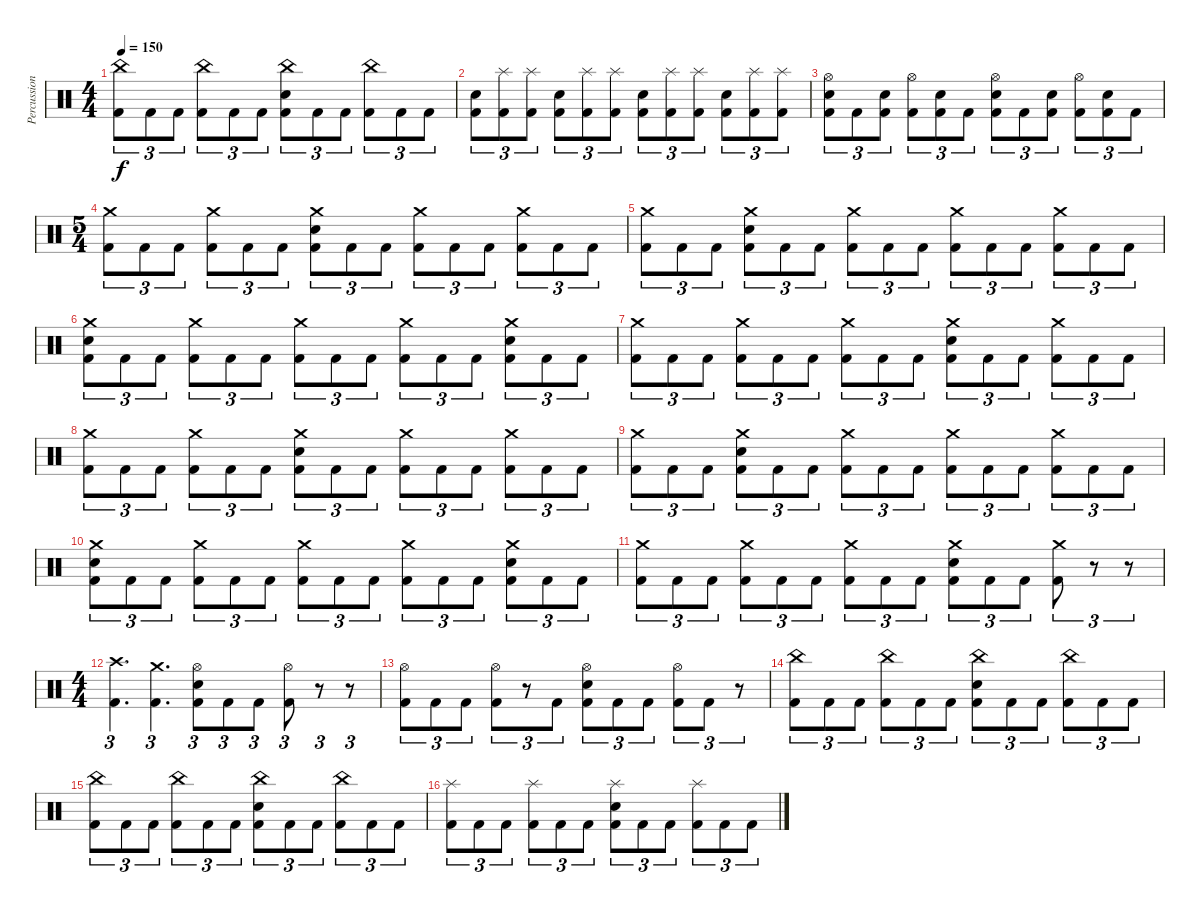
\track ("Percussion" "Percussion") {instrument percussion}
\staff {score}
\articulation defaults
\ts (4 4)
\tempo 150
\clef neutral
\ks c
("China (hit)" "Kick (hit) 2").8{tu (3 2) dy f} "Kick (hit) 2".8{tu (3 2)} "Kick (hit) 2".8{tu (3 2)} ("China (hit)" "Kick (hit) 2").8{tu (3 2)} "Kick (hit) 2".8{tu (3 2)} "Kick (hit) 2".8{tu (3 2)} ("China (hit)" "Snare (hit) 2" "Kick (hit) 2").8{tu (3 2)} "Kick (hit) 2".8{tu (3 2)} "Kick (hit) 2".8{tu (3 2)} ("China (hit)" "Kick (hit) 2").8{tu (3 2)} "Kick (hit) 2".8{tu (3 2)} "Kick (hit) 2".8{tu (3 2)} |
("Snare (hit) 2" "Kick (hit) 2").8{tu (3 2)} ("Splash (hit)" "Kick (hit) 2").8{tu (3 2)} ("Splash (hit)" "Kick (hit) 2").8{tu (3 2)} ("Snare (hit) 2" "Kick (hit) 2").8{tu (3 2)} ("Splash (hit)" "Kick (hit) 2").8{tu (3 2)} ("Splash (hit)" "Kick (hit) 2").8{tu (3 2)} ("Snare (hit) 2" "Kick (hit) 2").8{tu (3 2)} ("Splash (hit)" "Kick (hit) 2").8{tu (3 2)} ("Splash (hit)" "Kick (hit) 2").8{tu (3 2)} ("Snare (hit) 2" "Kick (hit) 2").8{tu (3 2)} ("Splash (hit)" "Kick (hit) 2").8{tu (3 2)} ("Splash (hit)" "Kick (hit) 2").8{tu (3 2)} |
("Hi-Hat (open)" "Snare (hit) 2" "Kick (hit) 2").8{tu (3 2)} "Kick (hit) 2".8{tu (3 2)} ("Snare (hit) 2" "Kick (hit) 2").8{tu (3 2)} ("Hi-Hat (open)" "Kick (hit) 2").8{tu (3 2)} ("Snare (hit) 2" "Kick (hit) 2").8{tu (3 2)} "Kick (hit) 2".8{tu (3 2)} ("Hi-Hat (open)" "Snare (hit) 2" "Kick (hit) 2").8{tu (3 2)} "Kick (hit) 2".8{tu (3 2)} ("Snare (hit) 2" "Kick (hit) 2").8{tu (3 2)} ("Hi-Hat (open)" "Kick (hit) 2").8{tu (3 2)} ("Snare (hit) 2" "Kick (hit) 2").8{tu (3 2)} "Kick (hit) 2".8{tu (3 2)} |
\ts (5 4)
("Crash medium (hit)" "Kick (hit) 2").8{tu (3 2)} "Kick (hit) 2".8{tu (3 2)} "Kick (hit) 2".8{tu (3 2)} ("Crash medium (hit)" "Kick (hit) 2").8{tu (3 2)} "Kick (hit) 2".8{tu (3 2)} "Kick (hit) 2".8{tu (3 2)} ("Crash medium (hit)" "Snare (hit) 2" "Kick (hit) 2").8{tu (3 2)} "Kick (hit) 2".8{tu (3 2)} "Kick (hit) 2".8{tu (3 2)} ("Crash medium (hit)" "Kick (hit) 2").8{tu (3 2)} "Kick (hit) 2".8{tu (3 2)} "Kick (hit) 2".8{tu (3 2)} ("Crash medium (hit)" "Kick (hit) 2").8{tu (3 2)} "Kick (hit) 2".8{tu (3 2)} "Kick (hit) 2".8{tu (3 2)} |
("Crash medium (hit)" "Kick (hit) 2").8{tu (3 2)} "Kick (hit) 2".8{tu (3 2)} "Kick (hit) 2".8{tu (3 2)} ("Crash medium (hit)" "Snare (hit) 2" "Kick (hit) 2").8{tu (3 2)} "Kick (hit) 2".8{tu (3 2)} "Kick (hit) 2".8{tu (3 2)} ("Crash medium (hit)" "Kick (hit) 2").8{tu (3 2)} "Kick (hit) 2".8{tu (3 2)} "Kick (hit) 2".8{tu (3 2)} ("Crash medium (hit)" "Kick (hit) 2").8{tu (3 2)} "Kick (hit) 2".8{tu (3 2)} "Kick (hit) 2".8{tu (3 2)} ("Crash medium (hit)" "Kick (hit) 2").8{tu (3 2)} "Kick (hit) 2".8{tu (3 2)} "Kick (hit) 2".8{tu (3 2)} |
("Crash medium (hit)" "Snare (hit) 2" "Kick (hit) 2").8{tu (3 2)} "Kick (hit) 2".8{tu (3 2)} "Kick (hit) 2".8{tu (3 2)} ("Crash medium (hit)" "Kick (hit) 2").8{tu (3 2)} "Kick (hit) 2".8{tu (3 2)} "Kick (hit) 2".8{tu (3 2)} ("Crash medium (hit)" "Kick (hit) 2").8{tu (3 2)} "Kick (hit) 2".8{tu (3 2)} "Kick (hit) 2".8{tu (3 2)} ("Crash medium (hit)" "Kick (hit) 2").8{tu (3 2)} "Kick (hit) 2".8{tu (3 2)} "Kick (hit) 2".8{tu (3 2)} ("Crash medium (hit)" "Snare (hit) 2" "Kick (hit) 2").8{tu (3 2)} "Kick (hit) 2".8{tu (3 2)} "Kick (hit) 2".8{tu (3 2)} |
("Crash medium (hit)" "Kick (hit) 2").8{tu (3 2)} "Kick (hit) 2".8{tu (3 2)} "Kick (hit) 2".8{tu (3 2)} ("Crash medium (hit)" "Kick (hit) 2").8{tu (3 2)} "Kick (hit) 2".8{tu (3 2)} "Kick (hit) 2".8{tu (3 2)} ("Crash medium (hit)" "Kick (hit) 2").8{tu (3 2)} "Kick (hit) 2".8{tu (3 2)} "Kick (hit) 2".8{tu (3 2)} ("Crash medium (hit)" "Snare (hit) 2" "Kick (hit) 2").8{tu (3 2)} "Kick (hit) 2".8{tu (3 2)} "Kick (hit) 2".8{tu (3 2)} ("Crash medium (hit)" "Kick (hit) 2").8{tu (3 2)} "Kick (hit) 2".8{tu (3 2)} "Kick (hit) 2".8{tu (3 2)} |
("Crash medium (hit)" "Kick (hit) 2").8{tu (3 2)} "Kick (hit) 2".8{tu (3 2)} "Kick (hit) 2".8{tu (3 2)} ("Crash medium (hit)" "Kick (hit) 2").8{tu (3 2)} "Kick (hit) 2".8{tu (3 2)} "Kick (hit) 2".8{tu (3 2)} ("Crash medium (hit)" "Snare (hit) 2" "Kick (hit) 2").8{tu (3 2)} "Kick (hit) 2".8{tu (3 2)} "Kick (hit) 2".8{tu (3 2)} ("Crash medium (hit)" "Kick (hit) 2").8{tu (3 2)} "Kick (hit) 2".8{tu (3 2)} "Kick (hit) 2".8{tu (3 2)} ("Crash medium (hit)" "Kick (hit) 2").8{tu (3 2)} "Kick (hit) 2".8{tu (3 2)} "Kick (hit) 2".8{tu (3 2)} |
("Crash medium (hit)" "Kick (hit) 2").8{tu (3 2)} "Kick (hit) 2".8{tu (3 2)} "Kick (hit) 2".8{tu (3 2)} ("Crash medium (hit)" "Snare (hit) 2" "Kick (hit) 2").8{tu (3 2)} "Kick (hit) 2".8{tu (3 2)} "Kick (hit) 2".8{tu (3 2)} ("Crash medium (hit)" "Kick (hit) 2").8{tu (3 2)} "Kick (hit) 2".8{tu (3 2)} "Kick (hit) 2".8{tu (3 2)} ("Crash medium (hit)" "Kick (hit) 2").8{tu (3 2)} "Kick (hit) 2".8{tu (3 2)} "Kick (hit) 2".8{tu (3 2)} ("Crash medium (hit)" "Kick (hit) 2").8{tu (3 2)} "Kick (hit) 2".8{tu (3 2)} "Kick (hit) 2".8{tu (3 2)} |
("Crash medium (hit)" "Snare (hit) 2" "Kick (hit) 2").8{tu (3 2)} "Kick (hit) 2".8{tu (3 2)} "Kick (hit) 2".8{tu (3 2)} ("Crash medium (hit)" "Kick (hit) 2").8{tu (3 2)} "Kick (hit) 2".8{tu (3 2)} "Kick (hit) 2".8{tu (3 2)} ("Crash medium (hit)" "Kick (hit) 2").8{tu (3 2)} "Kick (hit) 2".8{tu (3 2)} "Kick (hit) 2".8{tu (3 2)} ("Crash medium (hit)" "Kick (hit) 2").8{tu (3 2)} "Kick (hit) 2".8{tu (3 2)} "Kick (hit) 2".8{tu (3 2)} ("Crash medium (hit)" "Snare (hit) 2" "Kick (hit) 2").8{tu (3 2)} "Kick (hit) 2".8{tu (3 2)} "Kick (hit) 2".8{tu (3 2)} |
("Crash medium (hit)" "Kick (hit) 2").8{tu (3 2)} "Kick (hit) 2".8{tu (3 2)} "Kick (hit) 2".8{tu (3 2)} ("Crash medium (hit)" "Kick (hit) 2").8{tu (3 2)} "Kick (hit) 2".8{tu (3 2)} "Kick (hit) 2".8{tu (3 2)} ("Crash medium (hit)" "Kick (hit) 2").8{tu (3 2)} "Kick (hit) 2".8{tu (3 2)} "Kick (hit) 2".8{tu (3 2)} ("Crash medium (hit)" "Snare (hit) 2" "Kick (hit) 2").8{tu (3 2)} "Kick (hit) 2".8{tu (3 2)} "Kick (hit) 2".8{tu (3 2)} ("Crash medium (hit)" "Kick (hit) 2").8{tu (3 2)} r.8{tu (3 2)} r.8{tu (3 2)} |
\ts (4 4)
("Crash high (hit)" "Kick (hit) 2").4{d tu (3 2)} ("Crash medium (hit)" "Kick (hit) 2").4{d tu (3 2)} ("Hi-Hat (open)" "Snare (hit) 2" "Kick (hit) 2").8{tu (3 2)} "Kick (hit) 2".8{tu (3 2)} "Kick (hit) 2".8{tu (3 2)} ("Hi-Hat (open)" "Kick (hit) 2").8{tu (3 2)} r.8{tu (3 2)} r.8{tu (3 2)} |
("Hi-Hat (open)" "Kick (hit) 2").8{tu (3 2)} "Kick (hit) 2".8{tu (3 2)} "Kick (hit) 2".8{tu (3 2)} ("Hi-Hat (open)" "Kick (hit) 2").8{tu (3 2)} r.8{tu (3 2)} "Kick (hit) 2".8{tu (3 2)} ("Hi-Hat (open)" "Snare (hit) 2" "Kick (hit) 2").8{tu (3 2)} "Kick (hit) 2".8{tu (3 2)} "Kick (hit) 2".8{tu (3 2)} ("Hi-Hat (open)" "Kick (hit) 2").8{tu (3 2)} "Kick (hit) 2".8{tu (3 2)} r.8{tu (3 2)} |
("China (hit)" "Kick (hit) 2").8{tu (3 2)} "Kick (hit) 2".8{tu (3 2)} "Kick (hit) 2".8{tu (3 2)} ("China (hit)" "Kick (hit) 2").8{tu (3 2)} "Kick (hit) 2".8{tu (3 2)} "Kick (hit) 2".8{tu (3 2)} ("China (hit)" "Snare (hit) 2" "Kick (hit) 2").8{tu (3 2)} "Kick (hit) 2".8{tu (3 2)} "Kick (hit) 2".8{tu (3 2)} ("China (hit)" "Kick (hit) 2").8{tu (3 2)} "Kick (hit) 2".8{tu (3 2)} "Kick (hit) 2".8{tu (3 2)} |
("China (hit)" "Kick (hit) 2").8{tu (3 2)} "Kick (hit) 2".8{tu (3 2)} "Kick (hit) 2".8{tu (3 2)} ("China (hit)" "Kick (hit) 2").8{tu (3 2)} "Kick (hit) 2".8{tu (3 2)} "Kick (hit) 2".8{tu (3 2)} ("China (hit)" "Snare (hit) 2" "Kick (hit) 2").8{tu (3 2)} "Kick (hit) 2".8{tu (3 2)} "Kick (hit) 2".8{tu (3 2)} ("China (hit)" "Kick (hit) 2").8{tu (3 2)} "Kick (hit) 2".8{tu (3 2)} "Kick (hit) 2".8{tu (3 2)} |
("Splash (hit)" "Kick (hit) 2").8{tu (3 2)} "Kick (hit) 2".8{tu (3 2)} "Kick (hit) 2".8{tu (3 2)} ("Splash (hit)" "Kick (hit) 2").8{tu (3 2)} "Kick (hit) 2".8{tu (3 2)} "Kick (hit) 2".8{tu (3 2)} ("Splash (hit)" "Snare (hit) 2" "Kick (hit) 2").8{tu (3 2)} "Kick (hit) 2".8{tu (3 2)} "Kick (hit) 2".8{tu (3 2)} ("Splash (hit)" "Kick (hit) 2").8{tu (3 2)} "Kick (hit) 2".8{tu (3 2)} "Kick (hit) 2".8{tu (3 2)}
